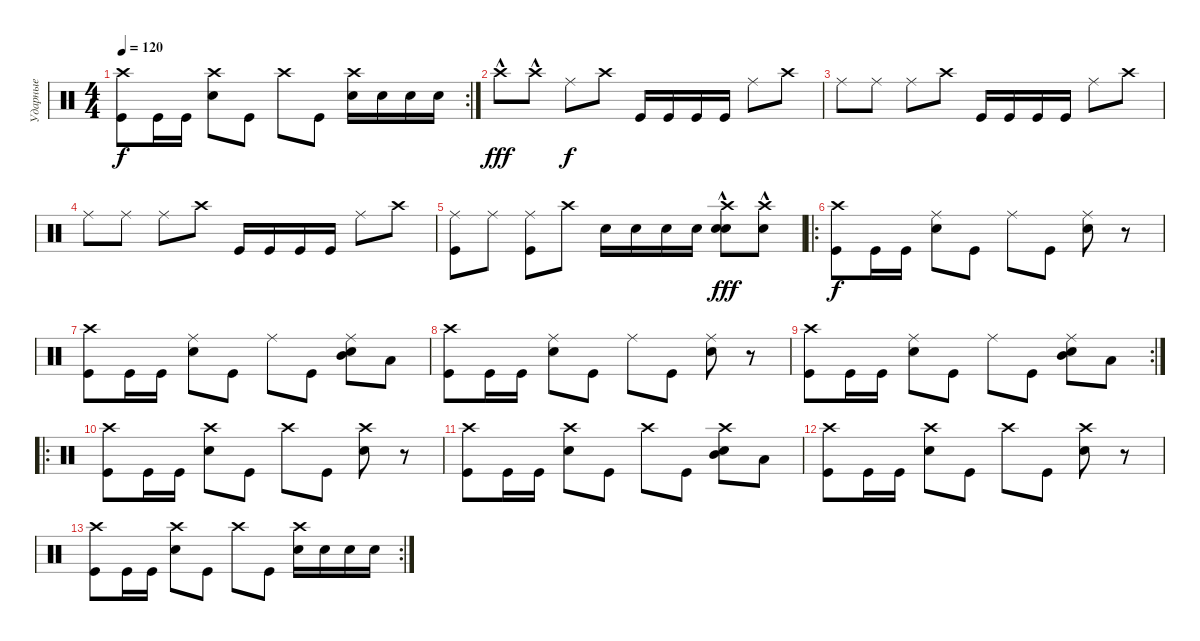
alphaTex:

\track ("Ударные" "Ударные") {instrument percussion}
\staff {score}
\articulation defaults
\rc 2
\ts (4 4)
\tempo 120
\clef neutral
\ks c
("Kick (hit)" "Crash high (hit)").8{dy f} "Kick (hit)".16 "Kick (hit)".16 ("Snare (hit) 2" "Crash high (hit)").8 "Kick (hit)".8 "Crash high (hit)".8 "Kick (hit)".8 ("Snare (hit) 2" "Crash high (hit)").16 "Snare (hit) 2".16 "Snare (hit) 2".16 "Snare (hit) 2".16 |
"Crash high (hit)"{hac}.8{dy fff} "Crash high (hit)"{hac}.8 "Ride (middle)".8{dy f} "Crash high (hit)".8 "Kick (hit)".16 "Kick (hit)".16 "Kick (hit)".16 "Kick (hit)".16 "Ride (middle)".8 "Crash high (hit)".8 |
"Ride (middle)".8 "Ride (middle)".8 "Ride (middle)".8 "Crash high (hit)".8 "Kick (hit)".16 "Kick (hit)".16 "Kick (hit)".16 "Kick (hit)".16 "Ride (middle)".8 "Crash high (hit)".8 |
"Ride (middle)".8 "Ride (middle)".8 "Ride (middle)".8 "Crash high (hit)".8 "Kick (hit)".16 "Kick (hit)".16 "Kick (hit)".16 "Kick (hit)".16 "Ride (middle)".8 "Crash high (hit)".8 |
("Ride (middle)" "Kick (hit)").8 "Ride (middle)".8 ("Kick (hit)" "Ride (middle)").8 "Crash high (hit)".8 "Snare (hit) 2".16 "Snare (hit) 2".16 "Snare (hit) 2".16 "Snare (hit) 2".16 ("Crash high (hit)" "Snare (hit) 2"{hac} "Snare (hit) 2").8{dy fff} ("Snare (hit) 2"{hac} "Crash high (hit)").8 |
\ro
("Kick (hit)" "Crash high (hit)").8{dy f} "Kick (hit)".16 "Kick (hit)".16 ("Snare (hit) 2" "Ride (middle)").8 "Kick (hit)".8 "Ride (middle)".8 "Kick (hit)".8 ("Snare (hit) 2" "Ride (middle)").8 r.8 |
("Kick (hit)" "Crash high (hit)").8 "Kick (hit)".16 "Kick (hit)".16 ("Snare (hit) 2" "Ride (middle)").8 "Kick (hit)".8 "Ride (middle)".8 "Kick (hit)".8 ("Snare (hit) 2" "Ride (middle)" "Mid Tom (hit)").8 "Low Tom (hit)".8 |
("Kick (hit)" "Crash high (hit)").8 "Kick (hit)".16 "Kick (hit)".16 ("Snare (hit) 2" "Ride (middle)").8 "Kick (hit)".8 "Ride (middle)".8 "Kick (hit)".8 ("Snare (hit) 2" "Ride (middle)").8 r.8 |
\rc 2
("Kick (hit)" "Crash high (hit)").8 "Kick (hit)".16 "Kick (hit)".16 ("Snare (hit) 2" "Ride (middle)").8 "Kick (hit)".8 "Ride (middle)".8 "Kick (hit)".8 ("Snare (hit) 2" "Ride (middle)" "Mid Tom (hit)").8 "Low Tom (hit)".8 |
\ro
("Kick (hit)" "Crash high (hit)").8 "Kick (hit)".16 "Kick (hit)".16 ("Snare (hit) 2" "Crash high (hit)").8 "Kick (hit)".8 "Crash high (hit)".8 "Kick (hit)".8 ("Snare (hit) 2" "Crash high (hit)").8 r.8 |
("Kick (hit)" "Crash high (hit)").8 "Kick (hit)".16 "Kick (hit)".16 ("Snare (hit) 2" "Crash high (hit)").8 "Kick (hit)".8 "Crash high (hit)".8 "Kick (hit)".8 ("Snare (hit) 2" "Crash high (hit)" "Mid Tom (hit)").8 "Low Tom (hit)".8 |
("Kick (hit)" "Crash high (hit)").8 "Kick (hit)".16 "Kick (hit)".16 ("Snare (hit) 2" "Crash high (hit)").8 "Kick (hit)".8 "Crash high (hit)".8 "Kick (hit)".8 ("Snare (hit) 2" "Crash high (hit)").8 r.8 |
\rc 2
("Kick (hit)" "Crash high (hit)").8 "Kick (hit)".16 "Kick (hit)".16 ("Snare (hit) 2" "Crash high (hit)").8 "Kick (hit)".8 "Crash high (hit)".8 "Kick (hit)".8 ("Snare (hit) 2" "Crash high (hit)").16 "Snare (hit) 2".16 "Snare (hit) 2".16 "Snare (hit) 2".16
